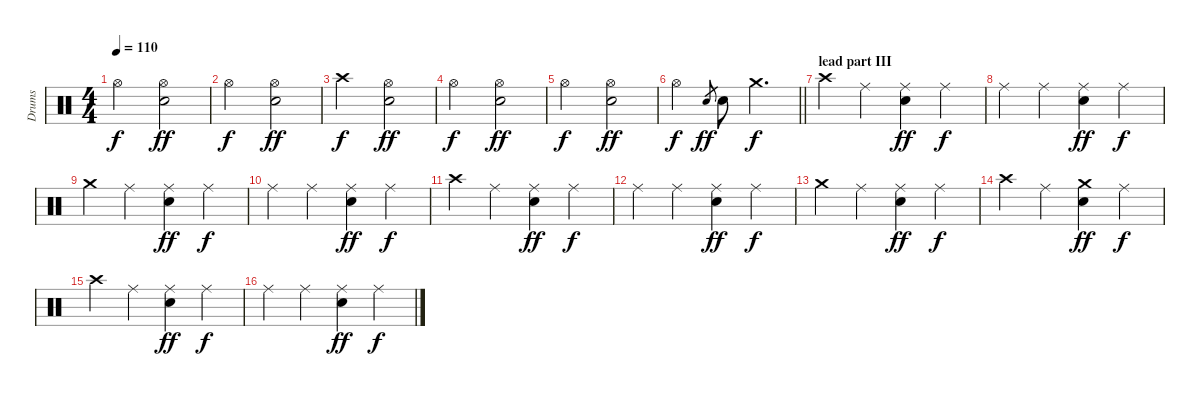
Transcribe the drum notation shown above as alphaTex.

\track ("Drums" "Drums") {instrument percussion}
\staff {score}
\articulation defaults
\ts (4 4)
\tempo 110
\clef neutral
\ks c "Hi-Hat (open)".2{dy f}
("Hi-Hat (open)" "Snare (hit) 2").2{dy ff} |
"Hi-Hat (open)".2{dy f} ("Hi-Hat (open)" "Snare (hit) 2").2{dy ff} |
"Crash high (hit)".2{dy f} ("Hi-Hat (open)" "Snare (hit) 2").2{dy ff} |
"Hi-Hat (open)".2{dy f} ("Hi-Hat (open)" "Snare (hit) 2").2{dy ff} |
"Hi-Hat (open)".2{dy f} ("Hi-Hat (open)" "Snare (hit) 2").2{dy ff} |
\barLineRight lightlight "Hi-Hat (open)".2{dy f} "Snare (hit) 2".8{gr dy ff} "Snare (hit) 2".8 "Crash medium (hit)".4{d dy f}
|
\section ("" "lead part III")
"Crash high (hit)".4 "Ride (middle)".4 ("Ride (middle)" "Snare (hit) 2").4{dy ff} "Ride (middle)".4{dy f} |
"Ride (middle)".4 "Ride (middle)".4 ("Ride (middle)" "Snare (hit) 2").4{dy ff} "Ride (middle)".4{dy f} |
"Crash medium (hit)".4 "Ride (middle)".4 ("Ride (middle)" "Snare (hit) 2").4{dy ff} "Ride (middle)".4{dy f} |
"Ride (middle)".4 "Ride (middle)".4 ("Ride (middle)" "Snare (hit) 2").4{dy ff} "Ride (middle)".4{dy f} |
"Crash high (hit)".4 "Ride (middle)".4 ("Ride (middle)" "Snare (hit) 2").4{dy ff} "Ride (middle)".4{dy f} |
"Ride (middle)".4 "Ride (middle)".4 ("Ride (middle)" "Snare (hit) 2").4{dy ff} "Ride (middle)".4{dy f} |
"Crash medium (hit)".4 "Ride (middle)".4 ("Ride (middle)" "Snare (hit) 2").4{dy ff} "Ride (middle)".4{dy f} |
"Crash high (hit)".4 "Ride (middle)".4 ("Crash medium (hit)" "Snare (hit) 2").4{dy ff} "Ride (middle)".4{dy f} |
"Crash high (hit)".4 "Ride (middle)".4 ("Ride (middle)" "Snare (hit) 2").4{dy ff} "Ride (middle)".4{dy f} |
"Ride (middle)".4 "Ride (middle)".4 ("Ride (middle)" "Snare (hit) 2").4{dy ff} "Ride (middle)".4{dy f}
